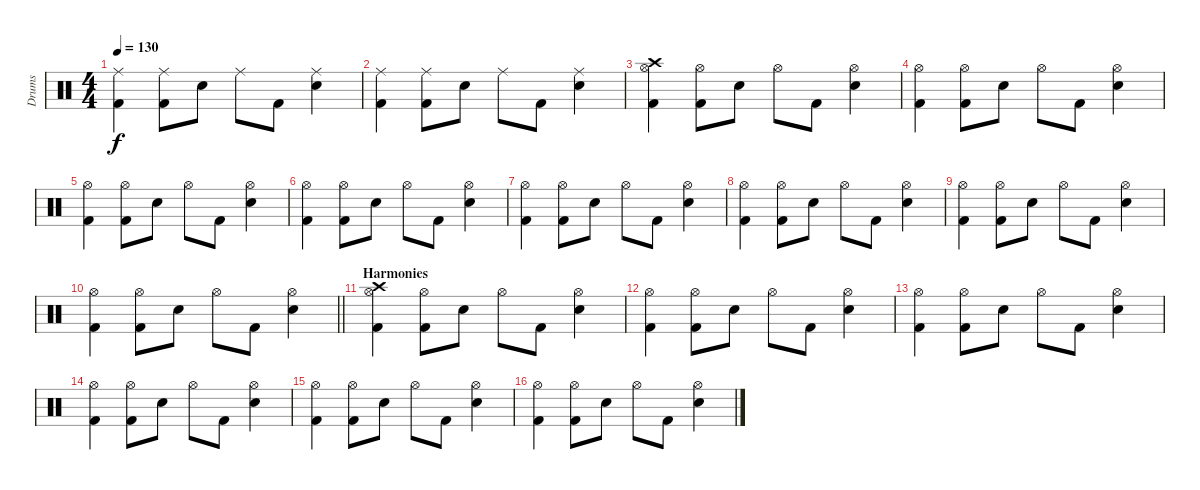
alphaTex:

\track ("Drums" "Drums") {instrument percussion}
\staff {score}
\articulation defaults
\ts (4 4)
\tempo 130
\clef neutral
\ks c
("Ride (middle)" "Kick (hit) 2").4{dy f} ("Ride (middle)" "Kick (hit) 2").8 "Snare (hit) 2".8 "Ride (middle)".8 "Kick (hit) 2".8 ("Ride (middle)" "Snare (hit) 2").4 |
("Ride (middle)" "Kick (hit) 2").4 ("Ride (middle)" "Kick (hit) 2").8 "Snare (hit) 2".8 "Ride (middle)".8 "Kick (hit) 2".8 ("Ride (middle)" "Snare (hit) 2").4 |
("Hi-Hat (open)" "Crash high (hit)" "Kick (hit) 2").4 ("Hi-Hat (open)" "Kick (hit) 2").8 "Snare (hit) 2".8 "Hi-Hat (open)".8 "Kick (hit) 2".8 ("Hi-Hat (open)" "Snare (hit) 2").4 |
("Hi-Hat (open)" "Kick (hit) 2").4 ("Hi-Hat (open)" "Kick (hit) 2").8 "Snare (hit) 2".8 "Hi-Hat (open)".8 "Kick (hit) 2".8 ("Hi-Hat (open)" "Snare (hit) 2").4 |
("Hi-Hat (open)" "Kick (hit) 2").4 ("Hi-Hat (open)" "Kick (hit) 2").8 "Snare (hit) 2".8 "Hi-Hat (open)".8 "Kick (hit) 2".8 ("Hi-Hat (open)" "Snare (hit) 2").4 |
("Hi-Hat (open)" "Kick (hit) 2").4 ("Hi-Hat (open)" "Kick (hit) 2").8 "Snare (hit) 2".8 "Hi-Hat (open)".8 "Kick (hit) 2".8 ("Hi-Hat (open)" "Snare (hit) 2").4 |
("Hi-Hat (open)" "Kick (hit) 2").4 ("Hi-Hat (open)" "Kick (hit) 2").8 "Snare (hit) 2".8 "Hi-Hat (open)".8 "Kick (hit) 2".8 ("Hi-Hat (open)" "Snare (hit) 2").4 |
("Hi-Hat (open)" "Kick (hit) 2").4 ("Hi-Hat (open)" "Kick (hit) 2").8 "Snare (hit) 2".8 "Hi-Hat (open)".8 "Kick (hit) 2".8 ("Hi-Hat (open)" "Snare (hit) 2").4 |
("Hi-Hat (open)" "Kick (hit) 2").4 ("Hi-Hat (open)" "Kick (hit) 2").8 "Snare (hit) 2".8 "Hi-Hat (open)".8 "Kick (hit) 2".8 ("Hi-Hat (open)" "Snare (hit) 2").4 |
\barLineRight lightlight
("Hi-Hat (open)" "Kick (hit) 2").4 ("Hi-Hat (open)" "Kick (hit) 2").8 "Snare (hit) 2".8 "Hi-Hat (open)".8 "Kick (hit) 2".8 ("Hi-Hat (open)" "Snare (hit) 2").4 |
\section ("" "Harmonies")
("Hi-Hat (open)" "Crash high (hit)" "Kick (hit) 2").4 ("Hi-Hat (open)" "Kick (hit) 2").8 "Snare (hit) 2".8 "Hi-Hat (open)".8 "Kick (hit) 2".8 ("Hi-Hat (open)" "Snare (hit) 2").4 |
("Hi-Hat (open)" "Kick (hit) 2").4 ("Hi-Hat (open)" "Kick (hit) 2").8 "Snare (hit) 2".8 "Hi-Hat (open)".8 "Kick (hit) 2".8 ("Hi-Hat (open)" "Snare (hit) 2").4 |
("Hi-Hat (open)" "Kick (hit) 2").4 ("Hi-Hat (open)" "Kick (hit) 2").8 "Snare (hit) 2".8 "Hi-Hat (open)".8 "Kick (hit) 2".8 ("Hi-Hat (open)" "Snare (hit) 2").4 |
("Hi-Hat (open)" "Kick (hit) 2").4 ("Hi-Hat (open)" "Kick (hit) 2").8 "Snare (hit) 2".8 "Hi-Hat (open)".8 "Kick (hit) 2".8 ("Hi-Hat (open)" "Snare (hit) 2").4 |
("Hi-Hat (open)" "Kick (hit) 2").4 ("Hi-Hat (open)" "Kick (hit) 2").8 "Snare (hit) 2".8 "Hi-Hat (open)".8 "Kick (hit) 2".8 ("Hi-Hat (open)" "Snare (hit) 2").4 |
("Hi-Hat (open)" "Kick (hit) 2").4 ("Hi-Hat (open)" "Kick (hit) 2").8 "Snare (hit) 2".8 "Hi-Hat (open)".8 "Kick (hit) 2".8 ("Hi-Hat (open)" "Snare (hit) 2").4
